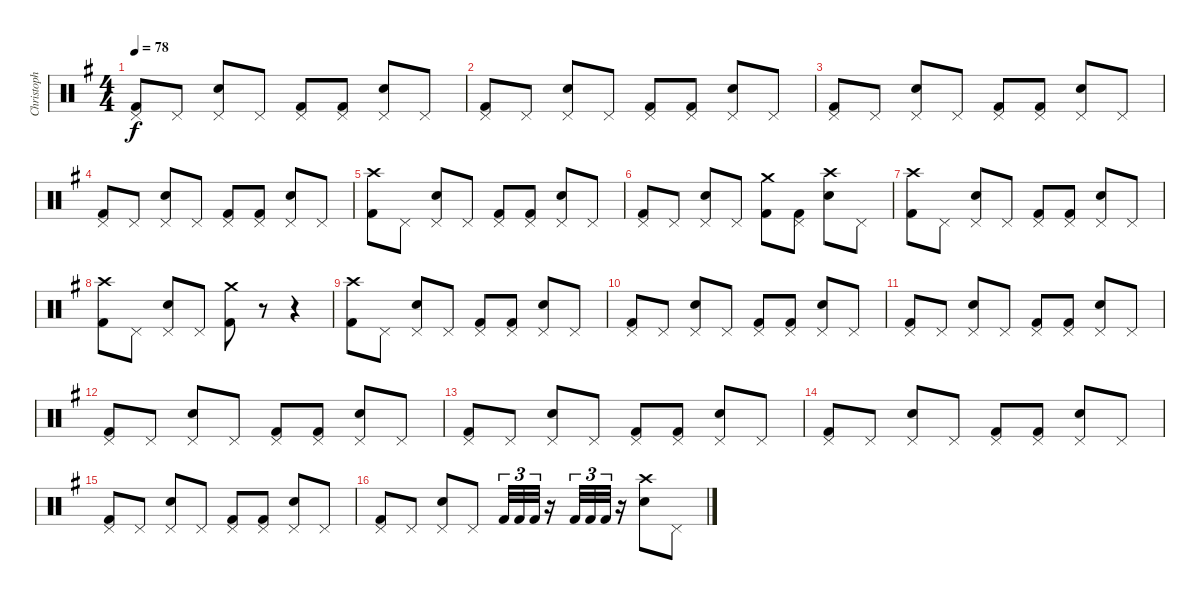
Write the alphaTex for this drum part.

\track ("Christoph" "Christoph") {instrument percussion}
\staff {score}
\articulation defaults
\ts (4 4)
\tempo 78
\clef neutral
\ks g
("Pedal Hi-Hat (hit)" "Kick (hit) 2").8{dy f} "Pedal Hi-Hat (hit)".8 ("Pedal Hi-Hat (hit)" "Snare (hit) 2").8 "Pedal Hi-Hat (hit)".8 ("Pedal Hi-Hat (hit)" "Kick (hit) 2").8 ("Pedal Hi-Hat (hit)" "Kick (hit) 2").8 ("Pedal Hi-Hat (hit)" "Snare (hit) 2").8 "Pedal Hi-Hat (hit)".8 |
("Pedal Hi-Hat (hit)" "Kick (hit) 2").8 "Pedal Hi-Hat (hit)".8 ("Pedal Hi-Hat (hit)" "Snare (hit) 2").8 "Pedal Hi-Hat (hit)".8 ("Pedal Hi-Hat (hit)" "Kick (hit) 2").8 ("Pedal Hi-Hat (hit)" "Kick (hit) 2").8 ("Pedal Hi-Hat (hit)" "Snare (hit) 2").8 "Pedal Hi-Hat (hit)".8 |
("Pedal Hi-Hat (hit)" "Kick (hit) 2").8 "Pedal Hi-Hat (hit)".8 ("Pedal Hi-Hat (hit)" "Snare (hit) 2").8 "Pedal Hi-Hat (hit)".8 ("Pedal Hi-Hat (hit)" "Kick (hit) 2").8 ("Pedal Hi-Hat (hit)" "Kick (hit) 2").8 ("Pedal Hi-Hat (hit)" "Snare (hit) 2").8 "Pedal Hi-Hat (hit)".8 |
("Pedal Hi-Hat (hit)" "Kick (hit) 2").8 "Pedal Hi-Hat (hit)".8 ("Pedal Hi-Hat (hit)" "Snare (hit) 2").8 "Pedal Hi-Hat (hit)".8 ("Pedal Hi-Hat (hit)" "Kick (hit) 2").8 ("Pedal Hi-Hat (hit)" "Kick (hit) 2").8 ("Pedal Hi-Hat (hit)" "Snare (hit) 2").8 "Pedal Hi-Hat (hit)".8 |
("Crash high (hit)" "Kick (hit) 2").8 "Pedal Hi-Hat (hit)".8 ("Pedal Hi-Hat (hit)" "Snare (hit) 2").8 "Pedal Hi-Hat (hit)".8 ("Pedal Hi-Hat (hit)" "Kick (hit) 2").8 ("Pedal Hi-Hat (hit)" "Kick (hit) 2").8 ("Pedal Hi-Hat (hit)" "Snare (hit) 2").8 "Pedal Hi-Hat (hit)".8 |
("Pedal Hi-Hat (hit)" "Kick (hit) 2").8 "Pedal Hi-Hat (hit)".8 ("Pedal Hi-Hat (hit)" "Snare (hit) 2").8 "Pedal Hi-Hat (hit)".8 ("Crash medium (hit)" "Kick (hit) 2").8 ("Pedal Hi-Hat (hit)" "Kick (hit) 2").8 ("Crash high (hit)" "Snare (hit) 2").8 "Pedal Hi-Hat (hit)".8 |
("Crash high (hit)" "Kick (hit) 2").8 "Pedal Hi-Hat (hit)".8 ("Pedal Hi-Hat (hit)" "Snare (hit) 2").8 "Pedal Hi-Hat (hit)".8 ("Pedal Hi-Hat (hit)" "Kick (hit) 2").8 ("Pedal Hi-Hat (hit)" "Kick (hit) 2").8 ("Pedal Hi-Hat (hit)" "Snare (hit) 2").8 "Pedal Hi-Hat (hit)".8 |
("Crash high (hit)" "Kick (hit) 2").8 "Pedal Hi-Hat (hit)".8 ("Pedal Hi-Hat (hit)" "Snare (hit) 2").8 "Pedal Hi-Hat (hit)".8 ("Crash medium (hit)" "Kick (hit) 2").8 r.8 r.4 |
("Crash high (hit)" "Kick (hit) 2").8 "Pedal Hi-Hat (hit)".8 ("Pedal Hi-Hat (hit)" "Snare (hit) 2").8 "Pedal Hi-Hat (hit)".8 ("Pedal Hi-Hat (hit)" "Kick (hit) 2").8 ("Pedal Hi-Hat (hit)" "Kick (hit) 2").8 ("Pedal Hi-Hat (hit)" "Snare (hit) 2").8 "Pedal Hi-Hat (hit)".8 |
("Pedal Hi-Hat (hit)" "Kick (hit) 2").8 "Pedal Hi-Hat (hit)".8 ("Pedal Hi-Hat (hit)" "Snare (hit) 2").8 "Pedal Hi-Hat (hit)".8 ("Pedal Hi-Hat (hit)" "Kick (hit) 2").8 ("Pedal Hi-Hat (hit)" "Kick (hit) 2").8 ("Pedal Hi-Hat (hit)" "Snare (hit) 2").8 "Pedal Hi-Hat (hit)".8 |
("Pedal Hi-Hat (hit)" "Kick (hit) 2").8 "Pedal Hi-Hat (hit)".8 ("Pedal Hi-Hat (hit)" "Snare (hit) 2").8 "Pedal Hi-Hat (hit)".8 ("Pedal Hi-Hat (hit)" "Kick (hit) 2").8 ("Pedal Hi-Hat (hit)" "Kick (hit) 2").8 ("Pedal Hi-Hat (hit)" "Snare (hit) 2").8 "Pedal Hi-Hat (hit)".8 |
("Pedal Hi-Hat (hit)" "Kick (hit) 2").8 "Pedal Hi-Hat (hit)".8 ("Pedal Hi-Hat (hit)" "Snare (hit) 2").8 "Pedal Hi-Hat (hit)".8 ("Pedal Hi-Hat (hit)" "Kick (hit) 2").8 ("Pedal Hi-Hat (hit)" "Kick (hit) 2").8 ("Pedal Hi-Hat (hit)" "Snare (hit) 2").8 "Pedal Hi-Hat (hit)".8 |
("Pedal Hi-Hat (hit)" "Kick (hit) 2").8 "Pedal Hi-Hat (hit)".8 ("Pedal Hi-Hat (hit)" "Snare (hit) 2").8 "Pedal Hi-Hat (hit)".8 ("Pedal Hi-Hat (hit)" "Kick (hit) 2").8 ("Pedal Hi-Hat (hit)" "Kick (hit) 2").8 ("Pedal Hi-Hat (hit)" "Snare (hit) 2").8 "Pedal Hi-Hat (hit)".8 |
("Pedal Hi-Hat (hit)" "Kick (hit) 2").8 "Pedal Hi-Hat (hit)".8 ("Pedal Hi-Hat (hit)" "Snare (hit) 2").8 "Pedal Hi-Hat (hit)".8 ("Pedal Hi-Hat (hit)" "Kick (hit) 2").8 ("Pedal Hi-Hat (hit)" "Kick (hit) 2").8 ("Pedal Hi-Hat (hit)" "Snare (hit) 2").8 "Pedal Hi-Hat (hit)".8 |
("Pedal Hi-Hat (hit)" "Kick (hit) 2").8 "Pedal Hi-Hat (hit)".8 ("Pedal Hi-Hat (hit)" "Snare (hit) 2").8 "Pedal Hi-Hat (hit)".8 ("Pedal Hi-Hat (hit)" "Kick (hit) 2").8 ("Pedal Hi-Hat (hit)" "Kick (hit) 2").8 ("Pedal Hi-Hat (hit)" "Snare (hit) 2").8 "Pedal Hi-Hat (hit)".8 |
("Pedal Hi-Hat (hit)" "Kick (hit) 2").8 "Pedal Hi-Hat (hit)".8 ("Pedal Hi-Hat (hit)" "Snare (hit) 2").8 "Pedal Hi-Hat (hit)".8 "Kick (hit) 2".32{tu (3 2)} "Kick (hit) 2".32{tu (3 2)} "Kick (hit) 2".32{tu (3 2)} r.16 "Kick (hit) 2".32{tu (3 2)} "Kick (hit) 2".32{tu (3 2)} "Kick (hit) 2".32{tu (3 2)} r.16 ("Crash high (hit)" "Snare (hit) 2").8 "Pedal Hi-Hat (hit)".8
